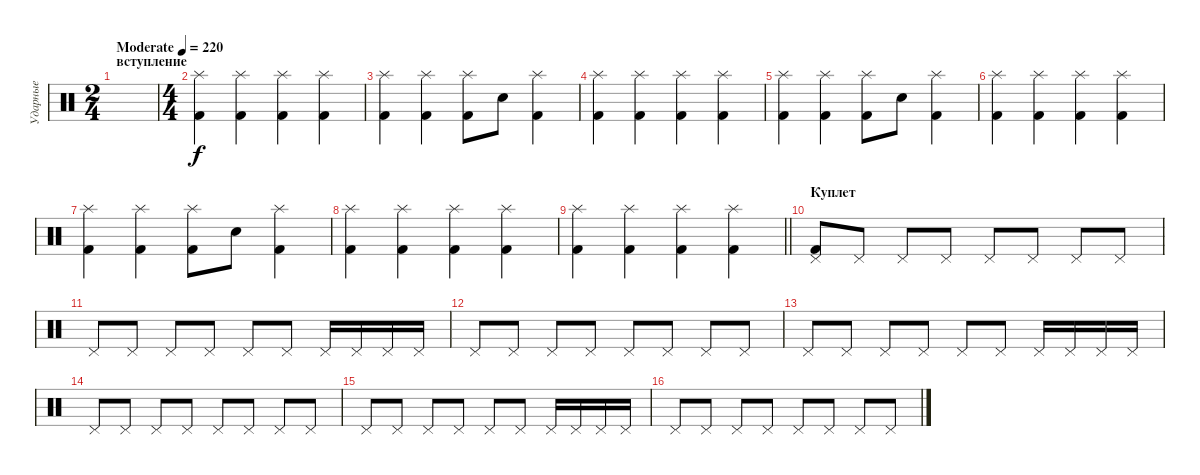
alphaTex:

\track ("Ударные" "Ударные") {instrument percussion}
\staff {score}
\articulation defaults
\ts (2 4)
\section ("" "вступление")
\tempo (220 "Moderate")
\clef neutral
\ks c
|
\ts (4 4)
("Splash (hit)" "Kick (hit) 2").4 ("Splash (hit)" "Kick (hit) 2").4 ("Splash (hit)" "Kick (hit) 2").4 ("Splash (hit)" "Kick (hit) 2").4 |
("Splash (hit)" "Kick (hit) 2").4 ("Splash (hit)" "Kick (hit) 2").4 ("Splash (hit)" "Kick (hit) 2").8 "Electric Snare (hit)".8 ("Splash (hit)" "Kick (hit) 2").4 |
("Splash (hit)" "Kick (hit) 2").4 ("Splash (hit)" "Kick (hit) 2").4 ("Splash (hit)" "Kick (hit) 2").4 ("Splash (hit)" "Kick (hit) 2").4 |
("Splash (hit)" "Kick (hit) 2").4 ("Splash (hit)" "Kick (hit) 2").4 ("Splash (hit)" "Kick (hit) 2").8 "Electric Snare (hit)".8 ("Splash (hit)" "Kick (hit) 2").4 |
("Splash (hit)" "Kick (hit) 2").4 ("Splash (hit)" "Kick (hit) 2").4 ("Splash (hit)" "Kick (hit) 2").4 ("Splash (hit)" "Kick (hit) 2").4 |
("Splash (hit)" "Kick (hit) 2").4 ("Splash (hit)" "Kick (hit) 2").4 ("Splash (hit)" "Kick (hit) 2").8 "Electric Snare (hit)".8 ("Splash (hit)" "Kick (hit) 2").4 |
("Splash (hit)" "Kick (hit) 2").4 ("Splash (hit)" "Kick (hit) 2").4 ("Splash (hit)" "Kick (hit) 2").4 ("Splash (hit)" "Kick (hit) 2").4 |
\barLineRight lightlight
("Splash (hit)" "Kick (hit) 2").4 ("Splash (hit)" "Kick (hit) 2").4 ("Splash (hit)" "Kick (hit) 2").4 ("Splash (hit)" "Kick (hit) 2").4 |
\section ("" "Куплет")
("Pedal Hi-Hat (hit)" "Kick (hit) 2").8 "Pedal Hi-Hat (hit)".8 "Pedal Hi-Hat (hit)".8 "Pedal Hi-Hat (hit)".8 "Pedal Hi-Hat (hit)".8 "Pedal Hi-Hat (hit)".8 "Pedal Hi-Hat (hit)".8 "Pedal Hi-Hat (hit)".8 |
"Pedal Hi-Hat (hit)".8 "Pedal Hi-Hat (hit)".8 "Pedal Hi-Hat (hit)".8 "Pedal Hi-Hat (hit)".8 "Pedal Hi-Hat (hit)".8 "Pedal Hi-Hat (hit)".8 "Pedal Hi-Hat (hit)".16 "Pedal Hi-Hat (hit)".16 "Pedal Hi-Hat (hit)".16 "Pedal Hi-Hat (hit)".16 |
"Pedal Hi-Hat (hit)".8 "Pedal Hi-Hat (hit)".8 "Pedal Hi-Hat (hit)".8 "Pedal Hi-Hat (hit)".8 "Pedal Hi-Hat (hit)".8 "Pedal Hi-Hat (hit)".8 "Pedal Hi-Hat (hit)".8 "Pedal Hi-Hat (hit)".8 |
"Pedal Hi-Hat (hit)".8 "Pedal Hi-Hat (hit)".8 "Pedal Hi-Hat (hit)".8 "Pedal Hi-Hat (hit)".8 "Pedal Hi-Hat (hit)".8 "Pedal Hi-Hat (hit)".8 "Pedal Hi-Hat (hit)".16 "Pedal Hi-Hat (hit)".16 "Pedal Hi-Hat (hit)".16 "Pedal Hi-Hat (hit)".16 |
"Pedal Hi-Hat (hit)".8 "Pedal Hi-Hat (hit)".8 "Pedal Hi-Hat (hit)".8 "Pedal Hi-Hat (hit)".8 "Pedal Hi-Hat (hit)".8 "Pedal Hi-Hat (hit)".8 "Pedal Hi-Hat (hit)".8 "Pedal Hi-Hat (hit)".8 |
"Pedal Hi-Hat (hit)".8 "Pedal Hi-Hat (hit)".8 "Pedal Hi-Hat (hit)".8 "Pedal Hi-Hat (hit)".8 "Pedal Hi-Hat (hit)".8 "Pedal Hi-Hat (hit)".8 "Pedal Hi-Hat (hit)".16 "Pedal Hi-Hat (hit)".16 "Pedal Hi-Hat (hit)".16 "Pedal Hi-Hat (hit)".16 |
"Pedal Hi-Hat (hit)".8 "Pedal Hi-Hat (hit)".8 "Pedal Hi-Hat (hit)".8 "Pedal Hi-Hat (hit)".8 "Pedal Hi-Hat (hit)".8 "Pedal Hi-Hat (hit)".8 "Pedal Hi-Hat (hit)".8 "Pedal Hi-Hat (hit)".8
